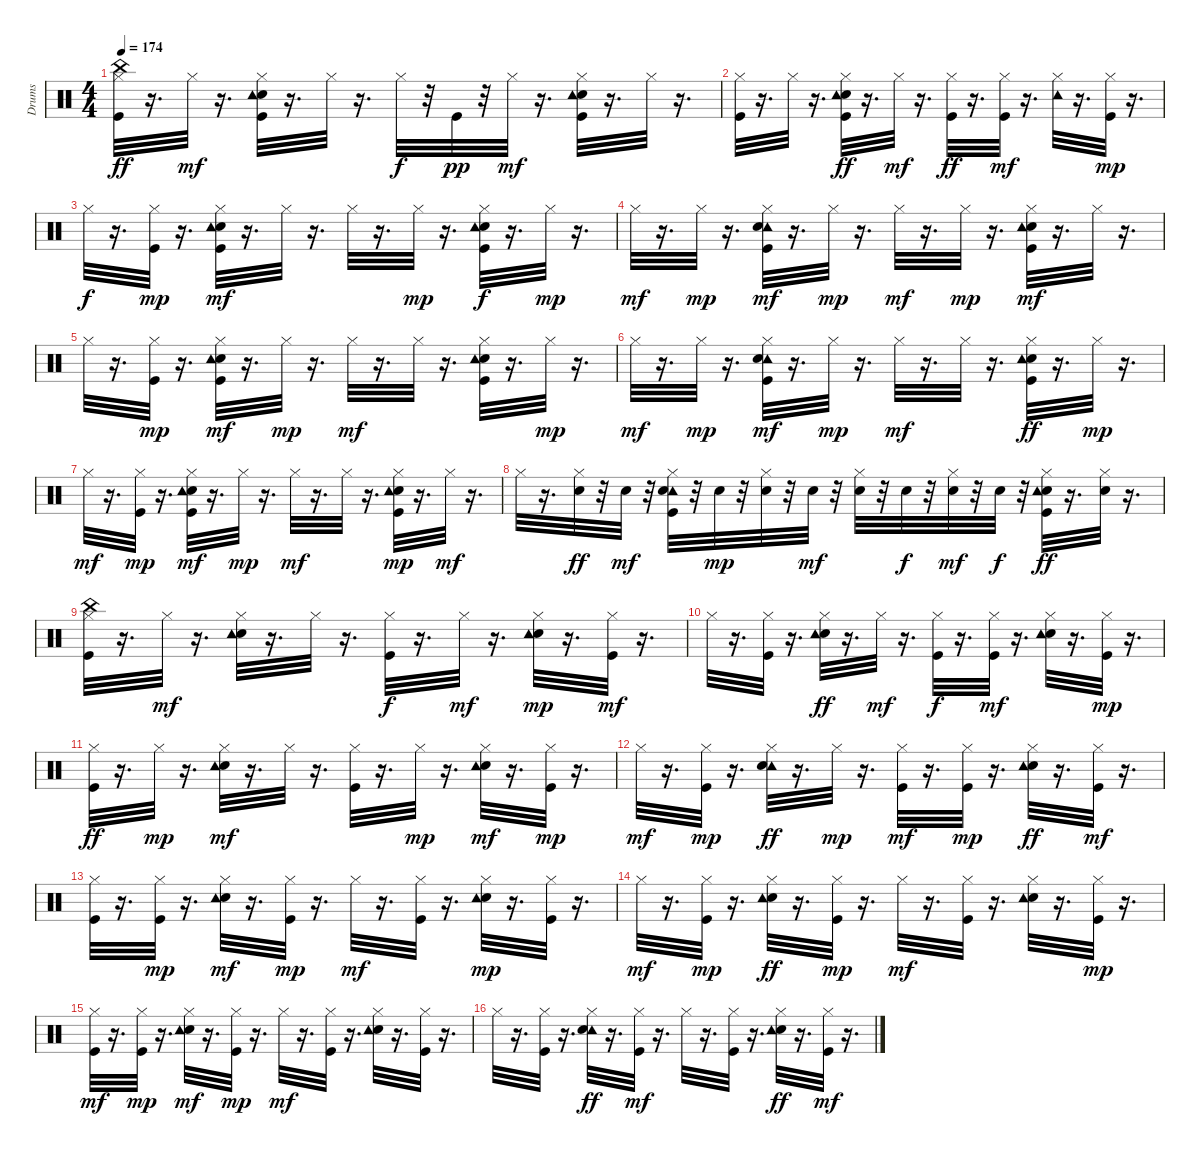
\track ("Drums" "Drums") {instrument percussion}
\staff {score}
\articulation defaults
\ts (4 4)
\tempo 174
\clef neutral
\ks c
("Kick (hit)" "Hi-Hat (closed)" "China (hit)").32{dy ff} r.16{d} "Hi-Hat (closed)".32{dy mf} r.16{d} ("Kick (hit)" "Hi-Hat (closed)" "Electric Snare (hit)" "Tambourine (hit)").32 r.16{d} "Hi-Hat (closed)".32 r.16{d} "Hi-Hat (closed)".32{dy f} r.32 "Kick (hit)".32{dy pp} r.32 "Hi-Hat (closed)".32{dy mf} r.16{d} ("Kick (hit)" "Hi-Hat (closed)" "Electric Snare (hit)" "Tambourine (hit)").32 r.16{d} "Hi-Hat (closed)".32 r.16{d} |
("Kick (hit)" "Hi-Hat (closed)").32 r.16{d} "Hi-Hat (closed)".32 r.16{d} ("Kick (hit)" "Hi-Hat (closed)" "Electric Snare (hit)" "Tambourine (hit)").32{dy ff} r.16{d} "Hi-Hat (closed)".32{dy mf} r.16{d} ("Kick (hit)" "Hi-Hat (closed)").32{dy ff} r.16{d} ("Kick (hit)" "Hi-Hat (closed)").32{dy mf} r.16{d} ("Hi-Hat (closed)" "Tambourine (hit)").32 r.16{d} ("Kick (hit)" "Hi-Hat (closed)").32{dy mp} r.16{d} |
"Hi-Hat (closed)".32{dy f} r.16{d} ("Kick (hit)" "Hi-Hat (closed)").32{dy mp} r.16{d} ("Kick (hit)" "Hi-Hat (closed)" "Electric Snare (hit)" "Tambourine (hit)").32{dy mf} r.16{d} "Hi-Hat (closed)".32 r.16{d} "Hi-Hat (closed)".32 r.16{d} "Hi-Hat (closed)".32{dy mp} r.16{d} ("Kick (hit)" "Hi-Hat (closed)" "Electric Snare (hit)" "Tambourine (hit)").32{dy f} r.16{d} "Hi-Hat (closed)".32{dy mp} r.16{d} |
"Hi-Hat (closed)".32{dy mf} r.16{d} "Hi-Hat (closed)".32{dy mp} r.16{d} ("Tambourine (hit)" "Kick (hit)" "Hi-Hat (closed)" "Electric Snare (hit)").32{dy mf} r.16{d} "Hi-Hat (closed)".32{dy mp} r.16{d} "Hi-Hat (closed)".32{dy mf} r.16{d} "Hi-Hat (closed)".32{dy mp} r.16{d} ("Kick (hit)" "Hi-Hat (closed)" "Electric Snare (hit)" "Tambourine (hit)").32{dy mf} r.16{d} "Hi-Hat (closed)".32 r.16{d} |
"Hi-Hat (closed)".32 r.16{d} ("Kick (hit)" "Hi-Hat (closed)").32{dy mp} r.16{d} ("Kick (hit)" "Hi-Hat (closed)" "Electric Snare (hit)" "Tambourine (hit)").32{dy mf} r.16{d} "Hi-Hat (closed)".32{dy mp} r.16{d} "Hi-Hat (closed)".32{dy mf} r.16{d} "Hi-Hat (closed)".32 r.16{d} ("Kick (hit)" "Hi-Hat (closed)" "Electric Snare (hit)" "Tambourine (hit)").32 r.16{d} "Hi-Hat (closed)".32{dy mp} r.16{d} |
"Hi-Hat (closed)".32{dy mf} r.16{d} "Hi-Hat (closed)".32{dy mp} r.16{d} ("Tambourine (hit)" "Kick (hit)" "Hi-Hat (closed)" "Electric Snare (hit)").32{dy mf} r.16{d} "Hi-Hat (closed)".32{dy mp} r.16{d} "Hi-Hat (closed)".32{dy mf} r.16{d} "Hi-Hat (closed)".32 r.16{d} ("Kick (hit)" "Hi-Hat (closed)" "Electric Snare (hit)" "Tambourine (hit)").32{dy ff} r.16{d} "Hi-Hat (closed)".32{dy mp} r.16{d} |
"Hi-Hat (closed)".32{dy mf} r.16{d} ("Kick (hit)" "Hi-Hat (closed)").32{dy mp} r.16{d} ("Kick (hit)" "Hi-Hat (closed)" "Electric Snare (hit)" "Tambourine (hit)").32{dy mf} r.16{d} "Hi-Hat (closed)".32{dy mp} r.16{d} "Hi-Hat (closed)".32{dy mf} r.16{d} "Hi-Hat (closed)".32 r.16{d} ("Kick (hit)" "Hi-Hat (closed)" "Electric Snare (hit)" "Tambourine (hit)").32{dy mp} r.16{d} "Hi-Hat (closed)".32{dy mf} r.16{d} |
"Hi-Hat (closed)".32 r.16{d} ("Hi-Hat (closed)" "Electric Snare (hit)").32{dy ff} r.32 "Electric Snare (hit)".32{dy mf} r.32 ("Tambourine (hit)" "Kick (hit)" "Hi-Hat (closed)" "Electric Snare (hit)").32 r.32 "Electric Snare (hit)".32{dy mp} r.32 ("Hi-Hat (closed)" "Electric Snare (hit)").32 r.32 "Electric Snare (hit)".32{dy mf} r.32 ("Hi-Hat (closed)" "Electric Snare (hit)").32 r.32 "Electric Snare (hit)".32{dy f} r.32 ("Hi-Hat (closed)" "Electric Snare (hit)").32{dy mf} r.32 "Electric Snare (hit)".32{dy f} r.32 ("Kick (hit)" "Hi-Hat (closed)" "Electric Snare (hit)" "Tambourine (hit)").32{dy ff} r.16{d} ("Hi-Hat (closed)" "Electric Snare (hit)").32 r.16{d} |
("Kick (hit)" "Hi-Hat (closed)" "China (hit)").32 r.16{d} "Hi-Hat (closed)".32{dy mf} r.16{d} ("Hi-Hat (closed)" "Electric Snare (hit)" "Tambourine (hit)").32 r.16{d} "Hi-Hat (closed)".32 r.16{d} ("Kick (hit)" "Hi-Hat (closed)").32{dy f} r.16{d} "Hi-Hat (closed)".32{dy mf} r.16{d} ("Hi-Hat (closed)" "Electric Snare (hit)" "Tambourine (hit)").32{dy mp} r.16{d} ("Kick (hit)" "Hi-Hat (closed)").32{dy mf} r.16{d} |
"Hi-Hat (closed)".32 r.16{d} ("Kick (hit)" "Hi-Hat (closed)").32 r.16{d} ("Hi-Hat (closed)" "Electric Snare (hit)" "Tambourine (hit)").32{dy ff} r.16{d} "Hi-Hat (closed)".32{dy mf} r.16{d} ("Kick (hit)" "Hi-Hat (closed)").32{dy f} r.16{d} ("Kick (hit)" "Hi-Hat (closed)").32{dy mf} r.16{d} ("Hi-Hat (closed)" "Electric Snare (hit)" "Tambourine (hit)").32 r.16{d} ("Kick (hit)" "Hi-Hat (closed)").32{dy mp} r.16{d} |
("Kick (hit)" "Hi-Hat (closed)").32{dy ff} r.16{d} "Hi-Hat (closed)".32{dy mp} r.16{d} ("Hi-Hat (closed)" "Electric Snare (hit)" "Tambourine (hit)").32{dy mf} r.16{d} "Hi-Hat (closed)".32 r.16{d} ("Kick (hit)" "Hi-Hat (closed)").32 r.16{d} "Hi-Hat (closed)".32{dy mp} r.16{d} ("Hi-Hat (closed)" "Electric Snare (hit)" "Tambourine (hit)").32{dy mf} r.16{d} ("Kick (hit)" "Hi-Hat (closed)").32{dy mp} r.16{d} |
"Hi-Hat (closed)".32{dy mf} r.16{d} ("Kick (hit)" "Hi-Hat (closed)").32{dy mp} r.16{d} ("Tambourine (hit)" "Hi-Hat (closed)" "Electric Snare (hit)").32{dy ff} r.16{d} "Hi-Hat (closed)".32{dy mp} r.16{d} ("Kick (hit)" "Hi-Hat (closed)").32{dy mf} r.16{d} ("Kick (hit)" "Hi-Hat (closed)").32{dy mp} r.16{d} ("Hi-Hat (closed)" "Electric Snare (hit)" "Tambourine (hit)").32{dy ff} r.16{d} ("Kick (hit)" "Hi-Hat (closed)").32{dy mf} r.16{d} |
("Kick (hit)" "Hi-Hat (closed)").32 r.16{d} ("Kick (hit)" "Hi-Hat (closed)").32{dy mp} r.16{d} ("Hi-Hat (closed)" "Electric Snare (hit)" "Tambourine (hit)").32{dy mf} r.16{d} ("Kick (hit)" "Hi-Hat (closed)").32{dy mp} r.16{d} "Hi-Hat (closed)".32{dy mf} r.16{d} ("Kick (hit)" "Hi-Hat (closed)").32 r.16{d} ("Hi-Hat (closed)" "Electric Snare (hit)" "Tambourine (hit)").32{dy mp} r.16{d} ("Kick (hit)" "Hi-Hat (closed)").32 r.16{d} |
"Hi-Hat (closed)".32{dy mf} r.16{d} ("Kick (hit)" "Hi-Hat (closed)").32{dy mp} r.16{d} ("Hi-Hat (closed)" "Electric Snare (hit)" "Tambourine (hit)").32{dy ff} r.16{d} ("Kick (hit)" "Hi-Hat (closed)").32{dy mp} r.16{d} "Hi-Hat (closed)".32{dy mf} r.16{d} ("Kick (hit)" "Hi-Hat (closed)").32 r.16{d} ("Hi-Hat (closed)" "Electric Snare (hit)" "Tambourine (hit)").32 r.16{d} ("Kick (hit)" "Hi-Hat (closed)").32{dy mp} r.16{d} |
("Kick (hit)" "Hi-Hat (closed)").32{dy mf} r.16{d} ("Kick (hit)" "Hi-Hat (closed)").32{dy mp} r.16{d} ("Hi-Hat (closed)" "Electric Snare (hit)" "Tambourine (hit)").32{dy mf} r.16{d} ("Kick (hit)" "Hi-Hat (closed)").32{dy mp} r.16{d} "Hi-Hat (closed)".32{dy mf} r.16{d} ("Kick (hit)" "Hi-Hat (closed)").32 r.16{d} ("Hi-Hat (closed)" "Electric Snare (hit)" "Tambourine (hit)").32 r.16{d} ("Kick (hit)" "Hi-Hat (closed)").32 r.16{d} |
"Hi-Hat (closed)".32 r.16{d} ("Kick (hit)" "Hi-Hat (closed)").32 r.16{d} ("Tambourine (hit)" "Hi-Hat (closed)" "Electric Snare (hit)").32{dy ff} r.16{d} ("Kick (hit)" "Hi-Hat (closed)").32{dy mf} r.16{d} "Hi-Hat (closed)".32 r.16{d} ("Kick (hit)" "Hi-Hat (closed)").32 r.16{d} ("Hi-Hat (closed)" "Electric Snare (hit)" "Tambourine (hit)").32{dy ff} r.16{d} ("Kick (hit)" "Hi-Hat (closed)").32{dy mf} r.16{d}
